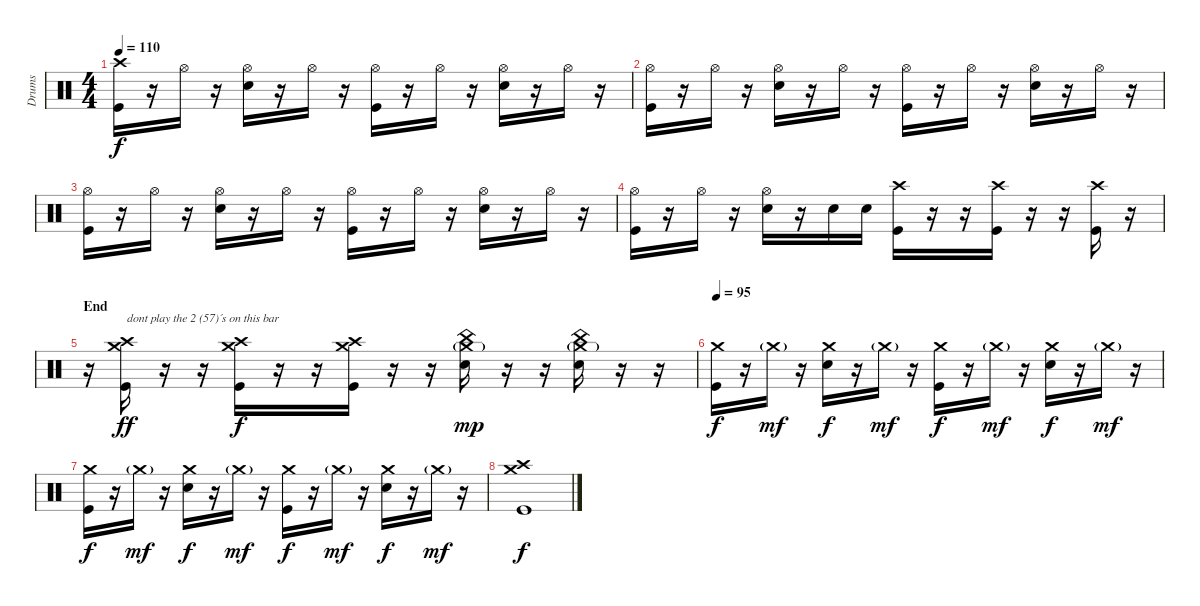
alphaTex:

\track ("Drums" "Drums") {instrument percussion}
\staff {score}
\articulation defaults
\ts (4 4)
\tempo 110
\clef neutral
\ks c
("Crash high (hit)" "Kick (hit)").16{dy f} r.16 "Hi-Hat (open)".16 r.16 ("Hi-Hat (open)" "Snare (hit) 2").16 r.16 "Hi-Hat (open)".16 r.16 ("Hi-Hat (open)" "Kick (hit)").16 r.16 "Hi-Hat (open)".16 r.16 ("Hi-Hat (open)" "Snare (hit) 2").16 r.16 "Hi-Hat (open)".16 r.16 |
("Hi-Hat (open)" "Kick (hit)").16 r.16 "Hi-Hat (open)".16 r.16 ("Hi-Hat (open)" "Snare (hit) 2").16 r.16 "Hi-Hat (open)".16 r.16 ("Hi-Hat (open)" "Kick (hit)").16 r.16 "Hi-Hat (open)".16 r.16 ("Hi-Hat (open)" "Snare (hit) 2").16 r.16 "Hi-Hat (open)".16 r.16 |
("Hi-Hat (open)" "Kick (hit)").16 r.16 "Hi-Hat (open)".16 r.16 ("Hi-Hat (open)" "Snare (hit) 2").16 r.16 "Hi-Hat (open)".16 r.16 ("Hi-Hat (open)" "Kick (hit)").16 r.16 "Hi-Hat (open)".16 r.16 ("Hi-Hat (open)" "Snare (hit) 2").16 r.16 "Hi-Hat (open)".16 r.16 |
("Hi-Hat (open)" "Kick (hit)").16 r.16 "Hi-Hat (open)".16 r.16 ("Hi-Hat (open)" "Snare (hit) 2").16 r.16 "Snare (hit) 2".16 "Snare (hit) 2".16 ("Crash high (hit)" "Kick (hit)").16 r.16 r.16 ("Crash high (hit)" "Kick (hit)").16 r.16 r.16 ("Crash high (hit)" "Kick (hit)").16 r.16 |
\section ("" "End")
r.16 ("Crash high (hit)" "Crash medium (hit)" "Kick (hit)").16{txt "dont play the 2 (57)´s on this bar" dy ff} r.16 r.16 ("Crash high (hit)" "Crash medium (hit)" "Kick (hit)").16{dy f} r.16 r.16 ("Crash high (hit)" "Crash medium (hit)" "Kick (hit)").16 r.16 r.16 ("China (hit)" "Crash medium (hit)"{g} "Snare (hit) 2").16{dy mp} r.16 r.16 ("China (hit)" "Crash medium (hit)"{g} "Snare (hit) 2").16 r.16 r.16 |
\tempo 95
("Crash medium (hit)" "Kick (hit)").16{dy f} r.16 "Crash medium (hit)"{g}.16{dy mf} r.16 ("Crash medium (hit)" "Snare (hit) 2").16{dy f} r.16 "Crash medium (hit)"{g}.16{dy mf} r.16 ("Crash medium (hit)" "Kick (hit)").16{dy f} r.16 "Crash medium (hit)"{g}.16{dy mf} r.16 ("Crash medium (hit)" "Snare (hit) 2").16{dy f} r.16 "Crash medium (hit)"{g}.16{dy mf} r.16 |
("Crash medium (hit)" "Kick (hit)").16{dy f} r.16 "Crash medium (hit)"{g}.16{dy mf} r.16 ("Crash medium (hit)" "Snare (hit) 2").16{dy f} r.16 "Crash medium (hit)"{g}.16{dy mf} r.16 ("Crash medium (hit)" "Kick (hit)").16{dy f} r.16 "Crash medium (hit)"{g}.16{dy mf} r.16 ("Crash medium (hit)" "Snare (hit) 2").16{dy f} r.16 "Crash medium (hit)"{g}.16{dy mf} r.16 |
("Crash high (hit)" "Crash medium (hit)" "Kick (hit)").1{dy f}
